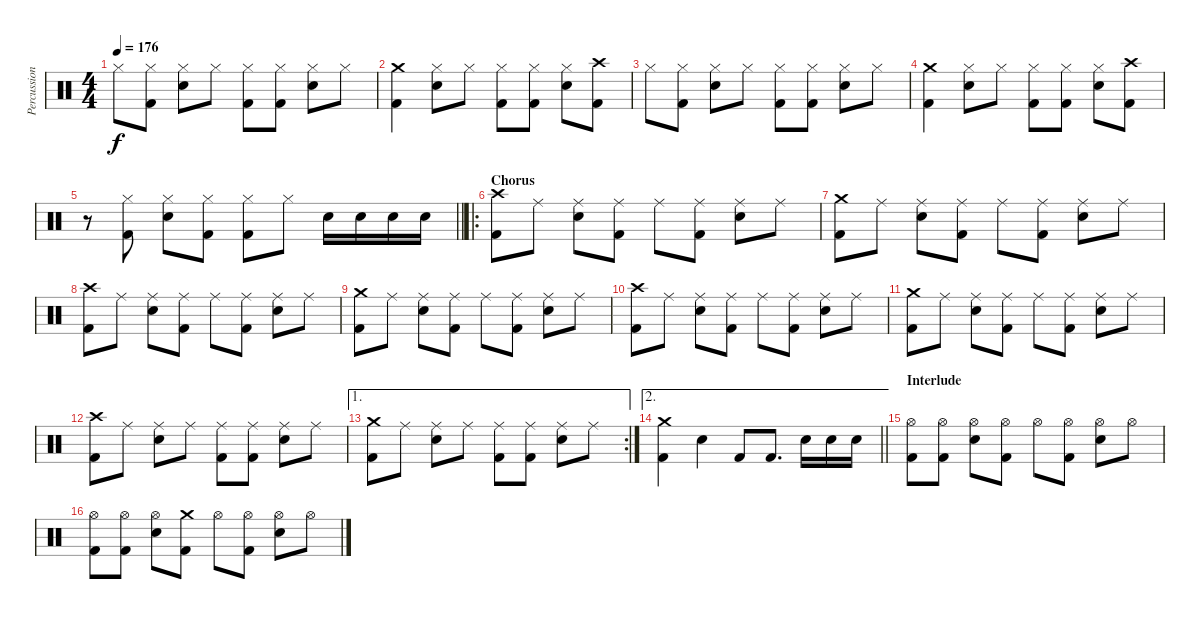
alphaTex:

\track ("Percussion" "Percussion") {instrument percussion}
\staff {score}
\articulation defaults
\ts (4 4)
\tempo 176
\clef neutral
\ks c "Hi-Hat (closed)".8{dy f}
("Hi-Hat (closed)" "Kick (hit) 2").8 ("Hi-Hat (closed)" "Snare (hit) 2").8 "Hi-Hat (closed)".8 ("Hi-Hat (closed)" "Kick (hit) 2").8 ("Hi-Hat (closed)" "Kick (hit) 2").8 ("Hi-Hat (closed)" "Snare (hit) 2").8 "Hi-Hat (closed)".8 |
("Crash medium (hit)" "Kick (hit) 2").4 ("Hi-Hat (closed)" "Snare (hit) 2").8 "Hi-Hat (closed)".8 ("Hi-Hat (closed)" "Kick (hit) 2").8 ("Hi-Hat (closed)" "Kick (hit) 2").8 ("Hi-Hat (closed)" "Snare (hit) 2").8 ("Crash high (hit)" "Kick (hit) 2").8 |
"Hi-Hat (closed)".8 ("Hi-Hat (closed)" "Kick (hit) 2").8 ("Hi-Hat (closed)" "Snare (hit) 2").8 "Hi-Hat (closed)".8 ("Hi-Hat (closed)" "Kick (hit) 2").8 ("Hi-Hat (closed)" "Kick (hit) 2").8 ("Hi-Hat (closed)" "Snare (hit) 2").8 "Hi-Hat (closed)".8 |
("Crash medium (hit)" "Kick (hit) 2").4 ("Hi-Hat (closed)" "Snare (hit) 2").8 "Hi-Hat (closed)".8 ("Hi-Hat (closed)" "Kick (hit) 2").8 ("Hi-Hat (closed)" "Kick (hit) 2").8 ("Hi-Hat (closed)" "Snare (hit) 2").8 ("Crash high (hit)" "Kick (hit) 2").8 |
\barLineRight lightlight
r.8 ("Hi-Hat (closed)" "Kick (hit) 2").8 ("Hi-Hat (closed)" "Snare (hit) 2").8 ("Hi-Hat (closed)" "Kick (hit) 2").8 ("Hi-Hat (closed)" "Kick (hit) 2").8 "Hi-Hat (closed)".8 "Snare (hit) 2".16 "Snare (hit) 2".16 "Snare (hit) 2".16 "Snare (hit) 2".16 |
\ro
\section ("" "Chorus")
("Crash high (hit)" "Kick (hit) 2").8 "Ride (middle)".8 ("Ride (middle)" "Snare (hit) 2").8 ("Ride (middle)" "Kick (hit) 2").8 "Ride (middle)".8 ("Ride (middle)" "Kick (hit) 2").8 ("Ride (middle)" "Snare (hit) 2").8 "Ride (middle)".8 |
("Crash medium (hit)" "Kick (hit) 2").8 "Ride (middle)".8 ("Ride (middle)" "Snare (hit) 2").8 ("Ride (middle)" "Kick (hit) 2").8 "Ride (middle)".8 ("Ride (middle)" "Kick (hit) 2").8 ("Ride (middle)" "Snare (hit) 2").8 "Ride (middle)".8 |
("Crash high (hit)" "Kick (hit) 2").8 "Ride (middle)".8 ("Ride (middle)" "Snare (hit) 2").8 ("Ride (middle)" "Kick (hit) 2").8 "Ride (middle)".8 ("Ride (middle)" "Kick (hit) 2").8 ("Ride (middle)" "Snare (hit) 2").8 "Ride (middle)".8 |
("Crash medium (hit)" "Kick (hit) 2").8 "Ride (middle)".8 ("Ride (middle)" "Snare (hit) 2").8 ("Ride (middle)" "Kick (hit) 2").8 "Ride (middle)".8 ("Ride (middle)" "Kick (hit) 2").8 ("Ride (middle)" "Snare (hit) 2").8 "Ride (middle)".8 |
("Crash high (hit)" "Kick (hit) 2").8 "Ride (middle)".8 ("Ride (middle)" "Snare (hit) 2").8 ("Ride (middle)" "Kick (hit) 2").8 "Ride (middle)".8 ("Ride (middle)" "Kick (hit) 2").8 ("Ride (middle)" "Snare (hit) 2").8 "Ride (middle)".8 |
("Crash medium (hit)" "Kick (hit) 2").8 "Ride (middle)".8 ("Ride (middle)" "Snare (hit) 2").8 ("Ride (middle)" "Kick (hit) 2").8 "Ride (middle)".8 ("Ride (middle)" "Kick (hit) 2").8 ("Ride (middle)" "Snare (hit) 2").8 "Ride (middle)".8 |
("Crash high (hit)" "Kick (hit) 2").8 "Ride (middle)".8 ("Ride (middle)" "Snare (hit) 2").8 "Ride (middle)".8 ("Ride (middle)" "Kick (hit) 2").8 ("Ride (middle)" "Kick (hit) 2").8 ("Ride (middle)" "Snare (hit) 2").8 "Ride (middle)".8 |
\ae 1
\rc 2
("Crash medium (hit)" "Kick (hit) 2").8 "Ride (middle)".8 ("Ride (middle)" "Snare (hit) 2").8 "Ride (middle)".8 ("Ride (middle)" "Kick (hit) 2").8 ("Ride (middle)" "Kick (hit) 2").8 ("Ride (middle)" "Snare (hit) 2").8 "Ride (middle)".8 |
\ae 2
\barLineRight lightlight
("Crash medium (hit)" "Kick (hit) 2").4 "Snare (hit) 2".4 "Kick (hit) 2".8 "Kick (hit) 2".8{d} "Snare (hit) 2".16 "Snare (hit) 2".16 "Snare (hit) 2".16 |
\section ("" "Interlude")
("Hi-Hat (open)" "Kick (hit) 2").8 ("Hi-Hat (open)" "Kick (hit) 2").8 ("Hi-Hat (open)" "Snare (hit) 2").8 ("Hi-Hat (open)" "Kick (hit) 2").8 "Hi-Hat (open)".8 ("Hi-Hat (open)" "Kick (hit) 2").8 ("Hi-Hat (open)" "Snare (hit) 2").8 "Hi-Hat (open)".8 |
("Hi-Hat (open)" "Kick (hit) 2").8 ("Hi-Hat (open)" "Kick (hit) 2").8 ("Hi-Hat (open)" "Snare (hit) 2").8 ("Crash medium (hit)" "Kick (hit) 2").8 "Hi-Hat (open)".8 ("Hi-Hat (open)" "Kick (hit) 2").8 ("Hi-Hat (open)" "Snare (hit) 2").8 "Hi-Hat (open)".8
